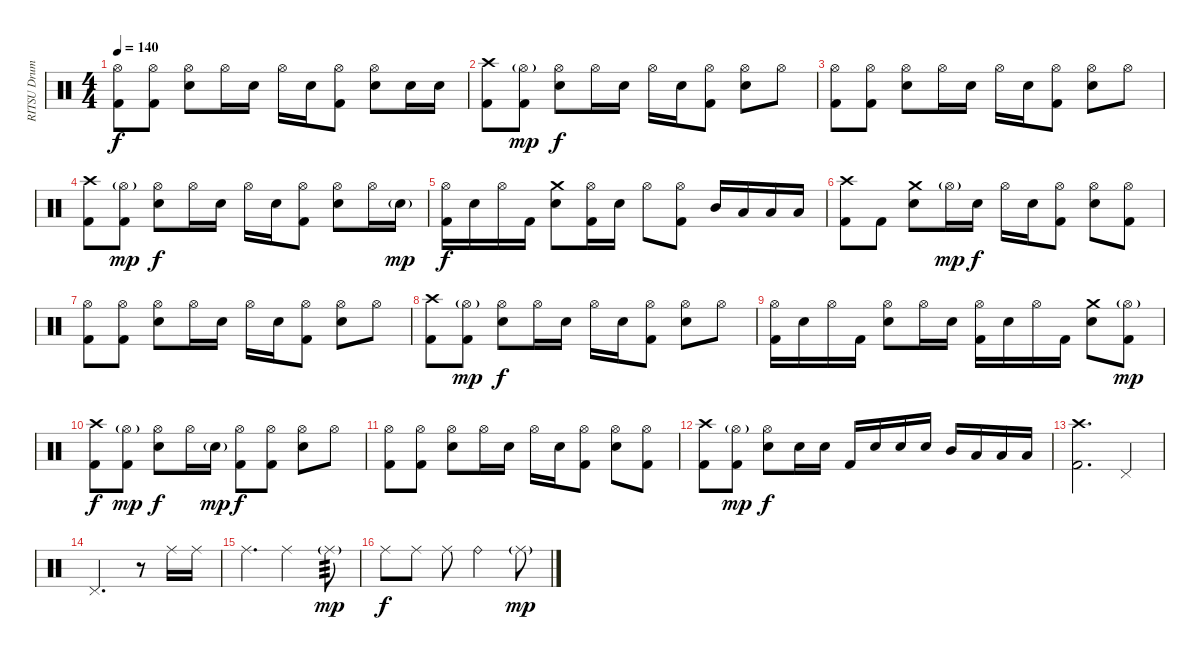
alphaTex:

\track ("RITSU Drums" "RITSU Drum") {instrument percussion}
\staff {score}
\articulation defaults
\ts (4 4)
\tempo 140
\clef neutral
\ks c
("Hi-Hat (open)" "Kick (hit) 2").8{dy f} ("Hi-Hat (open)" "Kick (hit) 2").8 ("Hi-Hat (open)" "Electric Snare (hit)").8 "Hi-Hat (open)".16 "Electric Snare (hit)".16 "Hi-Hat (open)".16 "Electric Snare (hit)".16 ("Hi-Hat (open)" "Kick (hit) 2").8 ("Hi-Hat (open)" "Electric Snare (hit)").8 "Electric Snare (hit)".16 "Electric Snare (hit)".16 |
("Crash high (hit)" "Kick (hit) 2").8 ("Hi-Hat (open)"{g} "Kick (hit) 2").8{dy mp} ("Hi-Hat (open)" "Electric Snare (hit)").8{dy f} "Hi-Hat (open)".16 "Electric Snare (hit)".16 "Hi-Hat (open)".16 "Electric Snare (hit)".16 ("Hi-Hat (open)" "Kick (hit) 2").8 ("Hi-Hat (open)" "Electric Snare (hit)").8 "Hi-Hat (open)".8 |
("Hi-Hat (open)" "Kick (hit) 2").8 ("Hi-Hat (open)" "Kick (hit) 2").8 ("Hi-Hat (open)" "Electric Snare (hit)").8 "Hi-Hat (open)".16 "Electric Snare (hit)".16 "Hi-Hat (open)".16 "Electric Snare (hit)".16 ("Hi-Hat (open)" "Kick (hit) 2").8 ("Hi-Hat (open)" "Electric Snare (hit)").8 "Hi-Hat (open)".8 |
("Crash high (hit)" "Kick (hit) 2").8 ("Hi-Hat (open)"{g} "Kick (hit) 2").8{dy mp} ("Hi-Hat (open)" "Electric Snare (hit)").8{dy f} "Hi-Hat (open)".16 "Electric Snare (hit)".16 "Hi-Hat (open)".16 "Electric Snare (hit)".16 ("Hi-Hat (open)" "Kick (hit) 2").8 ("Hi-Hat (open)" "Electric Snare (hit)").8 "Hi-Hat (open)".16 "Electric Snare (hit)"{g}.16{dy mp} |
("Hi-Hat (open)" "Kick (hit) 2").16{dy f} "Electric Snare (hit)".16 "Hi-Hat (open)".16 "Kick (hit) 2".16 ("Crash medium (hit)" "Electric Snare (hit)").8 ("Hi-Hat (open)" "Kick (hit) 2").16 "Electric Snare (hit)".16 "Hi-Hat (open)".8 ("Hi-Hat (open)" "Kick (hit) 2").8 "Mid Tom (hit)".16 "Low Tom (hit)".16 "Low Floor Tom (hit)".16 "Low Floor Tom (hit)".16 |
("Crash high (hit)" "Kick (hit) 2").8 "Kick (hit) 2".8 ("Crash medium (hit)" "Electric Snare (hit)").8 "Hi-Hat (open)"{g}.16{dy mp} "Electric Snare (hit)".16{dy f} "Hi-Hat (open)".16 "Electric Snare (hit)".16 ("Hi-Hat (open)" "Kick (hit) 2").8 ("Hi-Hat (open)" "Electric Snare (hit)").8 ("Hi-Hat (open)" "Kick (hit) 2").8 |
("Hi-Hat (open)" "Kick (hit) 2").8 ("Hi-Hat (open)" "Kick (hit) 2").8 ("Hi-Hat (open)" "Electric Snare (hit)").8 "Hi-Hat (open)".16 "Electric Snare (hit)".16 "Hi-Hat (open)".16 "Electric Snare (hit)".16 ("Hi-Hat (open)" "Kick (hit) 2").8 ("Hi-Hat (open)" "Electric Snare (hit)").8 "Hi-Hat (open)".8 |
("Crash high (hit)" "Kick (hit) 2").8 ("Hi-Hat (open)"{g} "Kick (hit) 2").8{dy mp} ("Hi-Hat (open)" "Electric Snare (hit)").8{dy f} "Hi-Hat (open)".16 "Electric Snare (hit)".16 "Hi-Hat (open)".16 "Electric Snare (hit)".16 ("Hi-Hat (open)" "Kick (hit) 2").8 ("Hi-Hat (open)" "Electric Snare (hit)").8 "Hi-Hat (open)".8 |
("Hi-Hat (open)" "Kick (hit) 2").16 "Electric Snare (hit)".16 "Hi-Hat (open)".16 "Kick (hit) 2".16 ("Hi-Hat (open)" "Electric Snare (hit)").8 "Hi-Hat (open)".16 "Electric Snare (hit)".16 ("Hi-Hat (open)" "Kick (hit) 2").16 "Electric Snare (hit)".16 "Hi-Hat (open)".16 "Kick (hit) 2".16 ("Crash medium (hit)" "Electric Snare (hit)").8 ("Hi-Hat (open)"{g} "Kick (hit) 2").8{dy mp} |
("Crash high (hit)" "Kick (hit) 2").8{dy f} ("Hi-Hat (open)"{g} "Kick (hit) 2").8{dy mp} ("Hi-Hat (open)" "Electric Snare (hit)").8{dy f} "Hi-Hat (open)".16 "Electric Snare (hit)"{g}.16{dy mp} ("Hi-Hat (open)" "Kick (hit) 2").8{dy f} ("Hi-Hat (open)" "Kick (hit) 2").8 ("Hi-Hat (open)" "Electric Snare (hit)").8 "Hi-Hat (open)".8 |
("Hi-Hat (open)" "Kick (hit) 2").8 ("Hi-Hat (open)" "Kick (hit) 2").8 ("Hi-Hat (open)" "Electric Snare (hit)").8 "Hi-Hat (open)".16 "Electric Snare (hit)".16 "Hi-Hat (open)".16 "Electric Snare (hit)".16 ("Hi-Hat (open)" "Kick (hit) 2").8 ("Hi-Hat (open)" "Electric Snare (hit)").8 ("Hi-Hat (open)" "Kick (hit) 2").8 |
("Crash high (hit)" "Kick (hit) 2").8 ("Hi-Hat (open)"{g} "Kick (hit) 2").8{dy mp} ("Hi-Hat (open)" "Electric Snare (hit)").8{dy f} "Electric Snare (hit)".16 "Electric Snare (hit)".16 "Kick (hit) 2".16 "Electric Snare (hit)".16 "Electric Snare (hit)".16 "Electric Snare (hit)".16 "Mid Tom (hit)".16 "Low Tom (hit)".16 "Low Floor Tom (hit)".16 "Low Floor Tom (hit)".16 |
("Crash high (hit)" "Kick (hit) 2").2{d} "Pedal Hi-Hat (hit)".4 |
"Pedal Hi-Hat (hit)".2{d} r.8 "Ride (middle)".16 "Ride (middle)".16 |
"Ride (middle)".4{d} "Ride (middle)".2 "Ride (middle)"{g}.8{tp 3 dy mp} |
"Ride (middle)".8{dy f} "Ride (middle)".8 "Ride (middle)".8 "Ride (bell)".2 "Ride (middle)"{g}.8{dy mp}
